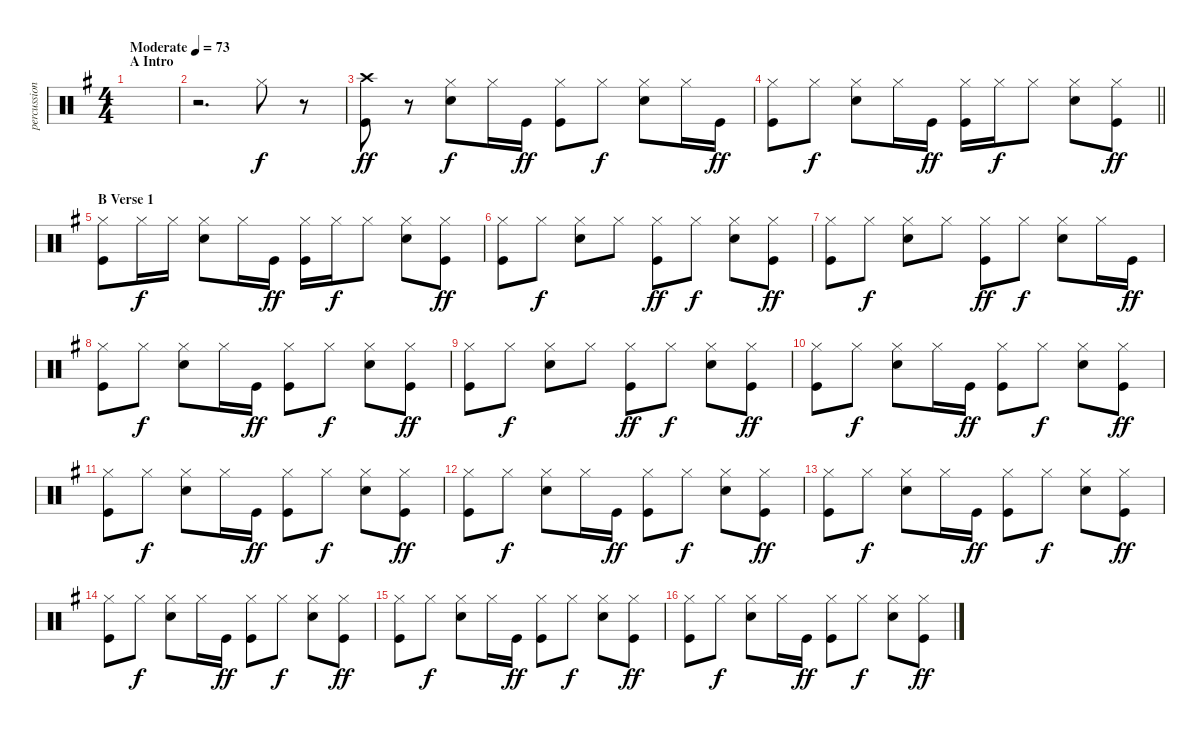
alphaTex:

\track ("percussion" "percussion") {instrument percussion}
\staff {score}
\articulation defaults
\ts (4 4)
\section ("" "A Intro")
\tempo (73 "Moderate")
\clef neutral
\ks g
|
r.2{d} "Hi-Hat (closed)".8 r.8 |
("Crash high (hit)" "Kick (hit)").8{dy ff} r.8 ("Electric Snare (hit)" "Hi-Hat (closed)").8{dy f} "Hi-Hat (closed)".16 "Kick (hit)".16{dy ff} ("Hi-Hat (closed)" "Kick (hit)").8 "Hi-Hat (closed)".8{dy f} ("Electric Snare (hit)" "Hi-Hat (closed)").8 "Hi-Hat (closed)".16 "Kick (hit)".16{dy ff} |
\barLineRight lightlight
("Hi-Hat (closed)" "Kick (hit)").8 "Hi-Hat (closed)".8{dy f} ("Electric Snare (hit)" "Hi-Hat (closed)").8 "Hi-Hat (closed)".16 "Kick (hit)".16{dy ff} ("Hi-Hat (closed)" "Kick (hit)").16 "Hi-Hat (closed)".16{dy f} "Hi-Hat (closed)".8 ("Electric Snare (hit)" "Hi-Hat (closed)").8 ("Hi-Hat (closed)" "Kick (hit)").8{dy ff} |
\section ("" "B Verse 1")
("Hi-Hat (closed)" "Kick (hit)").8 "Hi-Hat (closed)".16{dy f} "Hi-Hat (closed)".16 ("Electric Snare (hit)" "Hi-Hat (closed)").8 "Hi-Hat (closed)".16 "Kick (hit)".16{dy ff} ("Hi-Hat (closed)" "Kick (hit)").16 "Hi-Hat (closed)".16{dy f} "Hi-Hat (closed)".8 ("Electric Snare (hit)" "Hi-Hat (closed)").8 ("Hi-Hat (closed)" "Kick (hit)").8{dy ff} |
("Hi-Hat (closed)" "Kick (hit)").8 "Hi-Hat (closed)".8{dy f} ("Electric Snare (hit)" "Hi-Hat (closed)").8 "Hi-Hat (closed)".8 ("Hi-Hat (closed)" "Kick (hit)").8{dy ff} "Hi-Hat (closed)".8{dy f} ("Electric Snare (hit)" "Hi-Hat (closed)").8 ("Hi-Hat (closed)" "Kick (hit)").8{dy ff} |
("Hi-Hat (closed)" "Kick (hit)").8 "Hi-Hat (closed)".8{dy f} ("Electric Snare (hit)" "Hi-Hat (closed)").8 "Hi-Hat (closed)".8 ("Hi-Hat (closed)" "Kick (hit)").8{dy ff} "Hi-Hat (closed)".8{dy f} ("Electric Snare (hit)" "Hi-Hat (closed)").8 "Hi-Hat (closed)".16 "Kick (hit)".16{dy ff} |
("Hi-Hat (closed)" "Kick (hit)").8 "Hi-Hat (closed)".8{dy f} ("Electric Snare (hit)" "Hi-Hat (closed)").8 "Hi-Hat (closed)".16 "Kick (hit)".16{dy ff} ("Hi-Hat (closed)" "Kick (hit)").8 "Hi-Hat (closed)".8{dy f} ("Electric Snare (hit)" "Hi-Hat (closed)").8 ("Hi-Hat (closed)" "Kick (hit)").8{dy ff} |
("Hi-Hat (closed)" "Kick (hit)").8 "Hi-Hat (closed)".8{dy f} ("Electric Snare (hit)" "Hi-Hat (closed)").8 "Hi-Hat (closed)".8 ("Hi-Hat (closed)" "Kick (hit)").8{dy ff} "Hi-Hat (closed)".8{dy f} ("Electric Snare (hit)" "Hi-Hat (closed)").8 ("Hi-Hat (closed)" "Kick (hit)").8{dy ff} |
("Hi-Hat (closed)" "Kick (hit)").8 "Hi-Hat (closed)".8{dy f} ("Electric Snare (hit)" "Hi-Hat (closed)").8 "Hi-Hat (closed)".16 "Kick (hit)".16{dy ff} ("Hi-Hat (closed)" "Kick (hit)").8 "Hi-Hat (closed)".8{dy f} ("Electric Snare (hit)" "Hi-Hat (closed)").8 ("Hi-Hat (closed)" "Kick (hit)").8{dy ff} |
("Hi-Hat (closed)" "Kick (hit)").8 "Hi-Hat (closed)".8{dy f} ("Electric Snare (hit)" "Hi-Hat (closed)").8 "Hi-Hat (closed)".16 "Kick (hit)".16{dy ff} ("Hi-Hat (closed)" "Kick (hit)").8 "Hi-Hat (closed)".8{dy f} ("Electric Snare (hit)" "Hi-Hat (closed)").8 ("Hi-Hat (closed)" "Kick (hit)").8{dy ff} |
("Hi-Hat (closed)" "Kick (hit)").8 "Hi-Hat (closed)".8{dy f} ("Electric Snare (hit)" "Hi-Hat (closed)").8 "Hi-Hat (closed)".16 "Kick (hit)".16{dy ff} ("Hi-Hat (closed)" "Kick (hit)").8 "Hi-Hat (closed)".8{dy f} ("Electric Snare (hit)" "Hi-Hat (closed)").8 ("Hi-Hat (closed)" "Kick (hit)").8{dy ff} |
("Hi-Hat (closed)" "Kick (hit)").8 "Hi-Hat (closed)".8{dy f} ("Electric Snare (hit)" "Hi-Hat (closed)").8 "Hi-Hat (closed)".16 "Kick (hit)".16{dy ff} ("Hi-Hat (closed)" "Kick (hit)").8 "Hi-Hat (closed)".8{dy f} ("Electric Snare (hit)" "Hi-Hat (closed)").8 ("Hi-Hat (closed)" "Kick (hit)").8{dy ff} |
("Hi-Hat (closed)" "Kick (hit)").8 "Hi-Hat (closed)".8{dy f} ("Electric Snare (hit)" "Hi-Hat (closed)").8 "Hi-Hat (closed)".16 "Kick (hit)".16{dy ff} ("Hi-Hat (closed)" "Kick (hit)").8 "Hi-Hat (closed)".8{dy f} ("Electric Snare (hit)" "Hi-Hat (closed)").8 ("Hi-Hat (closed)" "Kick (hit)").8{dy ff} |
("Hi-Hat (closed)" "Kick (hit)").8 "Hi-Hat (closed)".8{dy f} ("Electric Snare (hit)" "Hi-Hat (closed)").8 "Hi-Hat (closed)".16 "Kick (hit)".16{dy ff} ("Hi-Hat (closed)" "Kick (hit)").8 "Hi-Hat (closed)".8{dy f} ("Electric Snare (hit)" "Hi-Hat (closed)").8 ("Hi-Hat (closed)" "Kick (hit)").8{dy ff} |
("Hi-Hat (closed)" "Kick (hit)").8 "Hi-Hat (closed)".8{dy f} ("Electric Snare (hit)" "Hi-Hat (closed)").8 "Hi-Hat (closed)".16 "Kick (hit)".16{dy ff} ("Hi-Hat (closed)" "Kick (hit)").8 "Hi-Hat (closed)".8{dy f} ("Electric Snare (hit)" "Hi-Hat (closed)").8 ("Hi-Hat (closed)" "Kick (hit)").8{dy ff}
